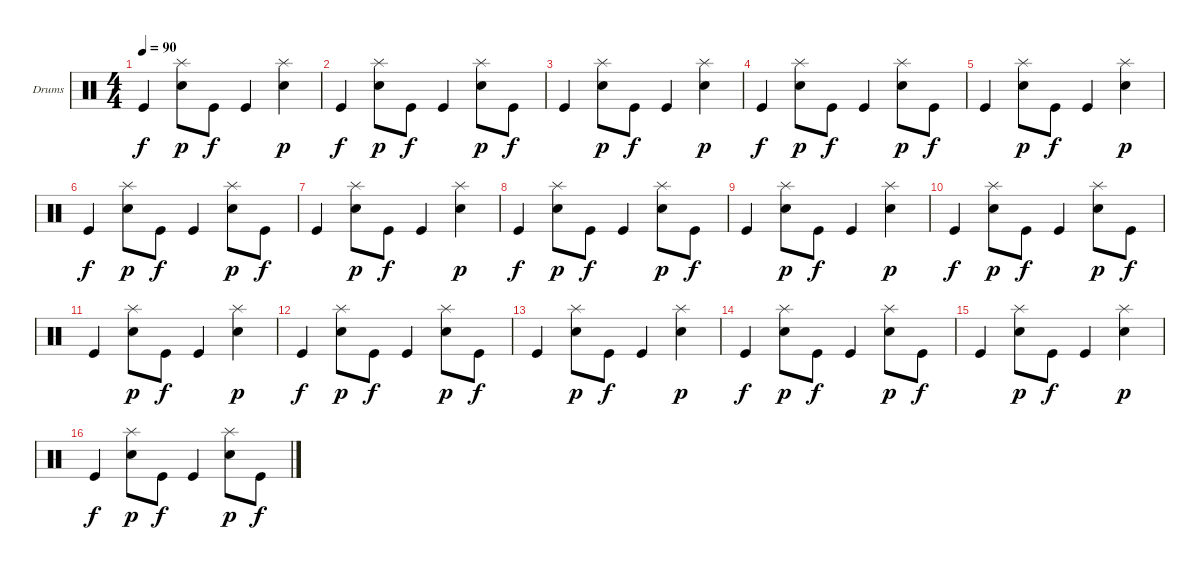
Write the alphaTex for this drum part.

\bracketExtendMode groupsimilarinstruments
\firstSystemTrackNameOrientation horizontal
\otherSystemsTrackNameOrientation horizontal
\track ("Ударные" "Drums") {instrument percussion}
\staff {score}
\articulation defaults
\ts (4 4)
\tempo 90
\clef neutral
\ks c "Kick (hit)".4{dy f}
("Splash (hit)" "Snare (hit) 2").8{dy p} "Kick (hit)".8{dy f} "Kick (hit)".4 ("Splash (hit)" "Snare (hit) 2").4{dy p} |
"Kick (hit)".4{dy f} ("Splash (hit)" "Snare (hit) 2").8{dy p} "Kick (hit)".8{dy f} "Kick (hit)".4 ("Splash (hit)" "Snare (hit) 2").8{dy p} "Kick (hit)".8{dy f} |
"Kick (hit)".4 ("Splash (hit)" "Snare (hit) 2").8{dy p} "Kick (hit)".8{dy f} "Kick (hit)".4 ("Splash (hit)" "Snare (hit) 2").4{dy p} |
"Kick (hit)".4{dy f} ("Splash (hit)" "Snare (hit) 2").8{dy p} "Kick (hit)".8{dy f} "Kick (hit)".4 ("Splash (hit)" "Snare (hit) 2").8{dy p} "Kick (hit)".8{dy f} |
"Kick (hit)".4 ("Splash (hit)" "Snare (hit) 2").8{dy p} "Kick (hit)".8{dy f} "Kick (hit)".4 ("Splash (hit)" "Snare (hit) 2").4{dy p} |
"Kick (hit)".4{dy f} ("Splash (hit)" "Snare (hit) 2").8{dy p} "Kick (hit)".8{dy f} "Kick (hit)".4 ("Splash (hit)" "Snare (hit) 2").8{dy p} "Kick (hit)".8{dy f} |
"Kick (hit)".4 ("Splash (hit)" "Snare (hit) 2").8{dy p} "Kick (hit)".8{dy f} "Kick (hit)".4 ("Splash (hit)" "Snare (hit) 2").4{dy p} |
"Kick (hit)".4{dy f} ("Splash (hit)" "Snare (hit) 2").8{dy p} "Kick (hit)".8{dy f} "Kick (hit)".4 ("Splash (hit)" "Snare (hit) 2").8{dy p} "Kick (hit)".8{dy f} |
"Kick (hit)".4 ("Splash (hit)" "Snare (hit) 2").8{dy p} "Kick (hit)".8{dy f} "Kick (hit)".4 ("Splash (hit)" "Snare (hit) 2").4{dy p} |
"Kick (hit)".4{dy f} ("Splash (hit)" "Snare (hit) 2").8{dy p} "Kick (hit)".8{dy f} "Kick (hit)".4 ("Splash (hit)" "Snare (hit) 2").8{dy p} "Kick (hit)".8{dy f} |
"Kick (hit)".4 ("Splash (hit)" "Snare (hit) 2").8{dy p} "Kick (hit)".8{dy f} "Kick (hit)".4 ("Splash (hit)" "Snare (hit) 2").4{dy p} |
"Kick (hit)".4{dy f} ("Splash (hit)" "Snare (hit) 2").8{dy p} "Kick (hit)".8{dy f} "Kick (hit)".4 ("Splash (hit)" "Snare (hit) 2").8{dy p} "Kick (hit)".8{dy f} |
"Kick (hit)".4 ("Splash (hit)" "Snare (hit) 2").8{dy p} "Kick (hit)".8{dy f} "Kick (hit)".4 ("Splash (hit)" "Snare (hit) 2").4{dy p} |
"Kick (hit)".4{dy f} ("Splash (hit)" "Snare (hit) 2").8{dy p} "Kick (hit)".8{dy f} "Kick (hit)".4 ("Splash (hit)" "Snare (hit) 2").8{dy p} "Kick (hit)".8{dy f} |
"Kick (hit)".4 ("Splash (hit)" "Snare (hit) 2").8{dy p} "Kick (hit)".8{dy f} "Kick (hit)".4 ("Splash (hit)" "Snare (hit) 2").4{dy p} |
"Kick (hit)".4{dy f} ("Splash (hit)" "Snare (hit) 2").8{dy p} "Kick (hit)".8{dy f} "Kick (hit)".4 ("Splash (hit)" "Snare (hit) 2").8{dy p} "Kick (hit)".8{dy f}
